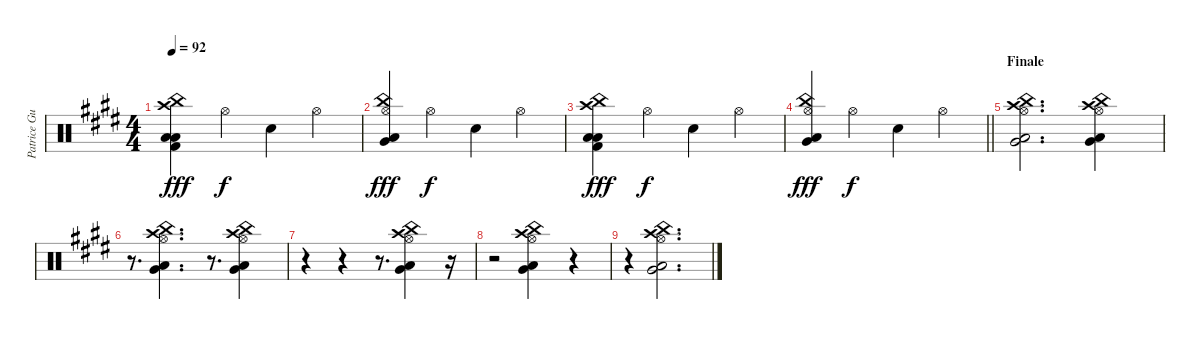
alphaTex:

\track ("Patrice Guers" "Patrice Gu") {instrument percussion}
\staff {score}
\articulation defaults
\ts (4 4)
\tempo 92
\clef neutral
\ks c#minor
("Crash high (hit)" "Low Floor Tom (hit)" "China (hit)" "Low Floor Tom (hit)" "Kick (hit) 2").4{dy fff} "Hi-Hat (open)".4{dy f} "Electric Snare (hit)".4 "Hi-Hat (open)".4 |
("Hi-Hat (open)" "Low Floor Tom (hit)" "Very Low Tom (hit)" "China (hit)").4{dy fff} "Hi-Hat (open)".4{dy f} "Electric Snare (hit)".4 "Hi-Hat (open)".4 |
("Crash high (hit)" "Low Floor Tom (hit)" "China (hit)" "Low Floor Tom (hit)" "Kick (hit) 2").4{dy fff} "Hi-Hat (open)".4{dy f} "Electric Snare (hit)".4 "Hi-Hat (open)".4 |
\barLineRight lightlight
("Hi-Hat (open)" "Low Floor Tom (hit)" "Very Low Tom (hit)" "China (hit)").4{dy fff} "Hi-Hat (open)".4{dy f} "Electric Snare (hit)".4 "Hi-Hat (open)".4 |
\section ("" "Finale")
("Crash high (hit)" "Very Low Tom (hit)" "Low Floor Tom (hit)" "China (hit)" "Hi-Hat (open)").2{d} ("Crash high (hit)" "Very Low Tom (hit)" "Low Floor Tom (hit)" "China (hit)" "Hi-Hat (open)").4 |
r.8{d} ("Crash high (hit)" "Very Low Tom (hit)" "Low Floor Tom (hit)" "China (hit)" "Hi-Hat (open)").4{d} r.8{d} ("Crash high (hit)" "Very Low Tom (hit)" "Low Floor Tom (hit)" "China (hit)" "Hi-Hat (open)").4 |
r.4 r.4 r.8{d} ("Crash high (hit)" "Very Low Tom (hit)" "Low Floor Tom (hit)" "China (hit)" "Hi-Hat (open)").4 r.16 |
r.2 ("Crash high (hit)" "Very Low Tom (hit)" "Low Floor Tom (hit)" "China (hit)" "Hi-Hat (open)").4 r.4 |
r.4 ("Crash high (hit)" "Very Low Tom (hit)" "Low Floor Tom (hit)" "China (hit)" "Hi-Hat (open)").2{d}
